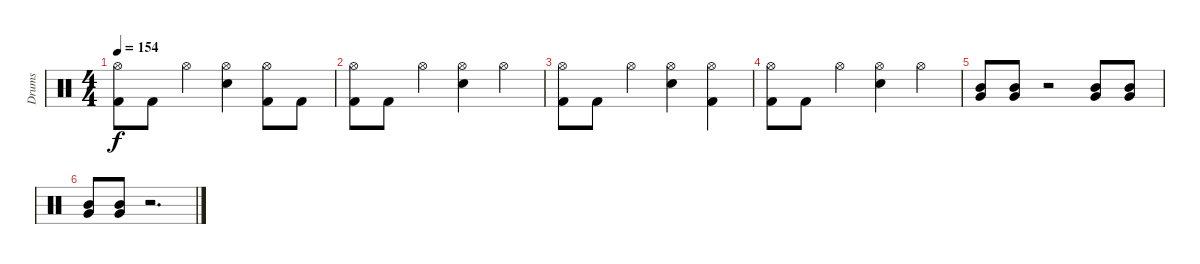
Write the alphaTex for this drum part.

\track ("Drums" "Drums") {instrument percussion}
\staff {score}
\articulation defaults
\ts (4 4)
\tempo 154
\clef neutral
\ks c
("Hi-Hat (open)" "Kick (hit) 2").8{dy f} "Kick (hit) 2".8 "Hi-Hat (open)".4 ("Hi-Hat (open)" "Electric Snare (hit)").4 ("Hi-Hat (open)" "Kick (hit) 2").8 "Kick (hit) 2".8 |
("Hi-Hat (open)" "Kick (hit) 2").8 "Kick (hit) 2".8 "Hi-Hat (open)".4 ("Hi-Hat (open)" "Electric Snare (hit)").4 "Hi-Hat (open)".4 |
("Hi-Hat (open)" "Kick (hit) 2").8 "Kick (hit) 2".8 "Hi-Hat (open)".4 ("Hi-Hat (open)" "Electric Snare (hit)").4 ("Hi-Hat (open)" "Kick (hit) 2").4 |
("Hi-Hat (open)" "Kick (hit) 2").8 "Kick (hit) 2".8 "Hi-Hat (open)".4 ("Hi-Hat (open)" "Electric Snare (hit)").4 "Hi-Hat (open)".4 |
("Mid Tom (hit)" "Very Low Tom (hit)").8 ("Mid Tom (hit)" "Very Low Tom (hit)").8 r.2 ("Mid Tom (hit)" "Very Low Tom (hit)").8 ("Mid Tom (hit)" "Very Low Tom (hit)").8 |
("Mid Tom (hit)" "Very Low Tom (hit)").8 ("Mid Tom (hit)" "Very Low Tom (hit)").8 r.2{d}
